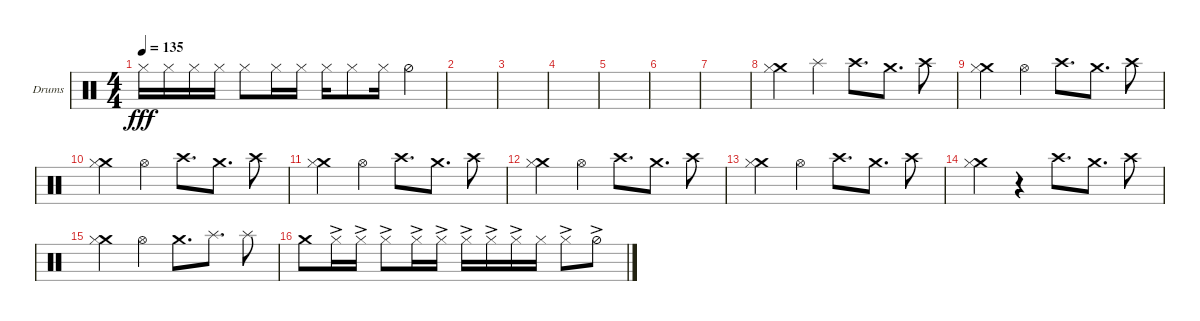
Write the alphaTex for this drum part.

\defaultSystemsLayout 4
\bracketExtendMode groupsimilarinstruments
\firstSystemTrackNameOrientation horizontal
\otherSystemsTrackNameOrientation horizontal
\track ("Helders" "Drums") {instrument percussion}
\staff {score}
\articulation defaults
\ts (4 4)
\tempo 135
\clef neutral
\ks c "Hi-Hat (closed)".16{dy fff} "Hi-Hat (closed)".16 "Hi-Hat (closed)".16 "Hi-Hat (closed)".16 "Hi-Hat (closed)".8 "Hi-Hat (closed)".16 "Hi-Hat (closed)".16 "Hi-Hat (closed)".16 "Hi-Hat (closed)".8 "Hi-Hat (closed)".16 "Hi-Hat (half)".4
|
|
|
|
|
|
|
("Crash medium (hit)" "Hi-Hat (closed)").4 "Splash (hit)".4 "Crash high (hit)".8{d} "Crash medium (hit)".8{d} "Crash high (hit)".8 |
("Crash medium (hit)" "Hi-Hat (closed)").4 "Hi-Hat (open)".4 "Crash high (hit)".8{d} "Crash medium (hit)".8{d} "Crash high (hit)".8 |
("Crash medium (hit)" "Hi-Hat (closed)").4 "Hi-Hat (open)".4 "Crash high (hit)".8{d} "Crash medium (hit)".8{d} "Crash high (hit)".8 |
("Crash medium (hit)" "Hi-Hat (closed)").4 "Hi-Hat (open)".4 "Crash high (hit)".8{d} "Crash medium (hit)".8{d} "Crash high (hit)".8 |
("Crash medium (hit)" "Hi-Hat (closed)").4 "Hi-Hat (open)".4 "Crash high (hit)".8{d} "Crash medium (hit)".8{d} "Crash high (hit)".8 |
("Crash medium (hit)" "Hi-Hat (closed)").4 "Hi-Hat (open)".4 "Crash high (hit)".8{d} "Crash medium (hit)".8{d} "Crash high (hit)".8 |
("Crash medium (hit)" "Hi-Hat (closed)").4 r.4 "Crash high (hit)".8{d} "Crash medium (hit)".8{d} "Crash high (hit)".8 |
("Crash medium (hit)" "Hi-Hat (closed)").4 "Hi-Hat (open)".4 "Crash medium (hit)".8{d} "Splash (hit)".8{d} "Splash (hit)".8 |
"Crash medium (hit)".8 "Hi-Hat (closed)"{ac}.16 "Hi-Hat (closed)"{ac}.16 "Hi-Hat (closed)"{ac}.8 "Hi-Hat (closed)"{ac}.16 "Hi-Hat (closed)"{ac}.16 "Hi-Hat (closed)"{ac}.16 "Hi-Hat (closed)"{ac}.16 "Hi-Hat (closed)"{ac}.16 "Hi-Hat (closed)".16 "Hi-Hat (closed)"{ac}.8 "Hi-Hat (half)"{ac}.8
